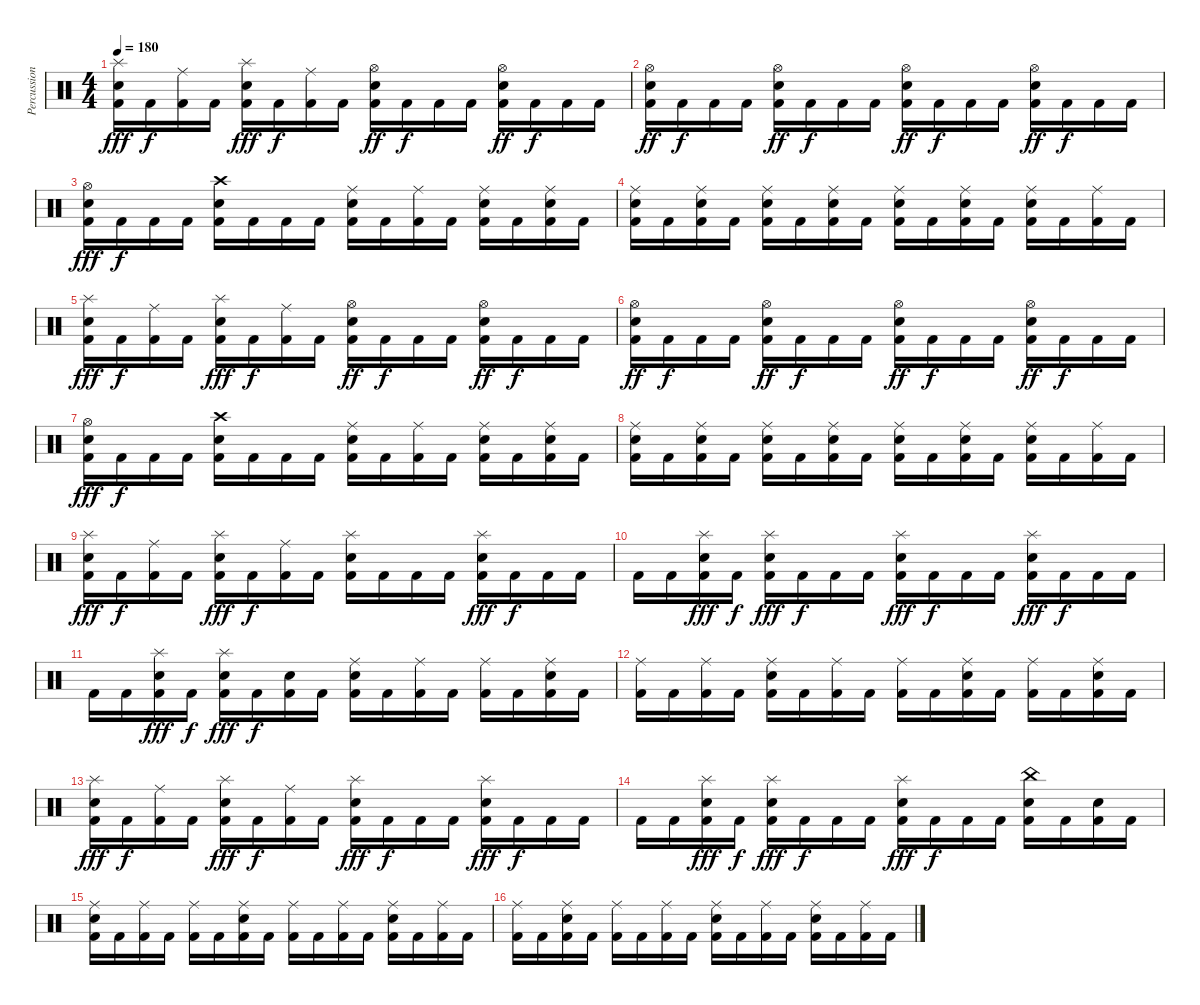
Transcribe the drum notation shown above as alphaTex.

\track ("Percussion" "Percussion") {instrument percussion}
\staff {score}
\articulation defaults
\ts (4 4)
\tempo 180
\clef neutral
\ks c
("Splash (hit)" "Electric Snare (hit)" "Kick (hit) 2").16{dy fff} "Kick (hit) 2".16{dy f} ("Ride (middle)" "Kick (hit) 2").16 "Kick (hit) 2".16 ("Splash (hit)" "Electric Snare (hit)" "Kick (hit) 2").16{dy fff} "Kick (hit) 2".16{dy f} ("Ride (middle)" "Kick (hit) 2").16 "Kick (hit) 2".16 ("Hi-Hat (open)" "Electric Snare (hit)" "Kick (hit) 2").16{dy ff} "Kick (hit) 2".16{dy f} "Kick (hit) 2".16 "Kick (hit) 2".16 ("Hi-Hat (open)" "Electric Snare (hit)" "Kick (hit) 2").16{dy ff} "Kick (hit) 2".16{dy f} "Kick (hit) 2".16 "Kick (hit) 2".16 |
("Hi-Hat (open)" "Electric Snare (hit)" "Kick (hit) 2").16{dy ff} "Kick (hit) 2".16{dy f} "Kick (hit) 2".16 "Kick (hit) 2".16 ("Hi-Hat (open)" "Electric Snare (hit)" "Kick (hit) 2").16{dy ff} "Kick (hit) 2".16{dy f} "Kick (hit) 2".16 "Kick (hit) 2".16 ("Hi-Hat (open)" "Electric Snare (hit)" "Kick (hit) 2").16{dy ff} "Kick (hit) 2".16{dy f} "Kick (hit) 2".16 "Kick (hit) 2".16 ("Hi-Hat (open)" "Electric Snare (hit)" "Kick (hit) 2").16{dy ff} "Kick (hit) 2".16{dy f} "Kick (hit) 2".16 "Kick (hit) 2".16 |
("Hi-Hat (open)" "Electric Snare (hit)" "Kick (hit) 2").16{dy fff} "Kick (hit) 2".16{dy f} "Kick (hit) 2".16 "Kick (hit) 2".16 ("Crash high (hit)" "Electric Snare (hit)" "Kick (hit) 2").16 "Kick (hit) 2".16 "Kick (hit) 2".16 "Kick (hit) 2".16 ("Ride (middle)" "Electric Snare (hit)" "Kick (hit) 2").16 "Kick (hit) 2".16 ("Ride (middle)" "Kick (hit) 2").16 "Kick (hit) 2".16 ("Ride (middle)" "Electric Snare (hit)" "Kick (hit) 2").16 "Kick (hit) 2".16 ("Ride (middle)" "Electric Snare (hit)" "Kick (hit) 2").16 "Kick (hit) 2".16 |
("Ride (middle)" "Electric Snare (hit)" "Kick (hit) 2").16 "Kick (hit) 2".16 ("Ride (middle)" "Electric Snare (hit)" "Kick (hit) 2").16 "Kick (hit) 2".16 ("Ride (middle)" "Electric Snare (hit)" "Kick (hit) 2").16 "Kick (hit) 2".16 ("Ride (middle)" "Electric Snare (hit)" "Kick (hit) 2").16 "Kick (hit) 2".16 ("Ride (middle)" "Electric Snare (hit)" "Kick (hit) 2").16 "Kick (hit) 2".16 ("Ride (middle)" "Electric Snare (hit)" "Kick (hit) 2").16 "Kick (hit) 2".16 ("Ride (middle)" "Electric Snare (hit)" "Kick (hit) 2").16 "Kick (hit) 2".16 ("Ride (middle)" "Kick (hit) 2").16 "Kick (hit) 2".16 |
("Splash (hit)" "Electric Snare (hit)" "Kick (hit) 2").16{dy fff} "Kick (hit) 2".16{dy f} ("Ride (middle)" "Kick (hit) 2").16 "Kick (hit) 2".16 ("Splash (hit)" "Electric Snare (hit)" "Kick (hit) 2").16{dy fff} "Kick (hit) 2".16{dy f} ("Ride (middle)" "Kick (hit) 2").16 "Kick (hit) 2".16 ("Hi-Hat (open)" "Electric Snare (hit)" "Kick (hit) 2").16{dy ff} "Kick (hit) 2".16{dy f} "Kick (hit) 2".16 "Kick (hit) 2".16 ("Hi-Hat (open)" "Electric Snare (hit)" "Kick (hit) 2").16{dy ff} "Kick (hit) 2".16{dy f} "Kick (hit) 2".16 "Kick (hit) 2".16 |
("Hi-Hat (open)" "Electric Snare (hit)" "Kick (hit) 2").16{dy ff} "Kick (hit) 2".16{dy f} "Kick (hit) 2".16 "Kick (hit) 2".16 ("Hi-Hat (open)" "Electric Snare (hit)" "Kick (hit) 2").16{dy ff} "Kick (hit) 2".16{dy f} "Kick (hit) 2".16 "Kick (hit) 2".16 ("Hi-Hat (open)" "Electric Snare (hit)" "Kick (hit) 2").16{dy ff} "Kick (hit) 2".16{dy f} "Kick (hit) 2".16 "Kick (hit) 2".16 ("Hi-Hat (open)" "Electric Snare (hit)" "Kick (hit) 2").16{dy ff} "Kick (hit) 2".16{dy f} "Kick (hit) 2".16 "Kick (hit) 2".16 |
("Hi-Hat (open)" "Electric Snare (hit)" "Kick (hit) 2").16{dy fff} "Kick (hit) 2".16{dy f} "Kick (hit) 2".16 "Kick (hit) 2".16 ("Crash high (hit)" "Electric Snare (hit)" "Kick (hit) 2").16 "Kick (hit) 2".16 "Kick (hit) 2".16 "Kick (hit) 2".16 ("Ride (middle)" "Electric Snare (hit)" "Kick (hit) 2").16 "Kick (hit) 2".16 ("Ride (middle)" "Kick (hit) 2").16 "Kick (hit) 2".16 ("Ride (middle)" "Electric Snare (hit)" "Kick (hit) 2").16 "Kick (hit) 2".16 ("Ride (middle)" "Electric Snare (hit)" "Kick (hit) 2").16 "Kick (hit) 2".16 |
("Ride (middle)" "Electric Snare (hit)" "Kick (hit) 2").16 "Kick (hit) 2".16 ("Ride (middle)" "Electric Snare (hit)" "Kick (hit) 2").16 "Kick (hit) 2".16 ("Ride (middle)" "Electric Snare (hit)" "Kick (hit) 2").16 "Kick (hit) 2".16 ("Ride (middle)" "Electric Snare (hit)" "Kick (hit) 2").16 "Kick (hit) 2".16 ("Ride (middle)" "Electric Snare (hit)" "Kick (hit) 2").16 "Kick (hit) 2".16 ("Ride (middle)" "Electric Snare (hit)" "Kick (hit) 2").16 "Kick (hit) 2".16 ("Ride (middle)" "Electric Snare (hit)" "Kick (hit) 2").16 "Kick (hit) 2".16 ("Ride (middle)" "Kick (hit) 2").16 "Kick (hit) 2".16 |
("Splash (hit)" "Electric Snare (hit)" "Kick (hit) 2").16{dy fff} "Kick (hit) 2".16{dy f} ("Ride (middle)" "Kick (hit) 2").16 "Kick (hit) 2".16 ("Splash (hit)" "Electric Snare (hit)" "Kick (hit) 2").16{dy fff} "Kick (hit) 2".16{dy f} ("Ride (middle)" "Kick (hit) 2").16 "Kick (hit) 2".16 ("Splash (hit)" "Electric Snare (hit)" "Kick (hit) 2").16 "Kick (hit) 2".16 "Kick (hit) 2".16 "Kick (hit) 2".16 ("Splash (hit)" "Electric Snare (hit)" "Kick (hit) 2").16{dy fff} "Kick (hit) 2".16{dy f} "Kick (hit) 2".16 "Kick (hit) 2".16 |
"Kick (hit) 2".16 "Kick (hit) 2".16 ("Splash (hit)" "Electric Snare (hit)" "Kick (hit) 2").16{dy fff} "Kick (hit) 2".16{dy f} ("Splash (hit)" "Electric Snare (hit)" "Kick (hit) 2").16{dy fff} "Kick (hit) 2".16{dy f} "Kick (hit) 2".16 "Kick (hit) 2".16 ("Splash (hit)" "Electric Snare (hit)" "Kick (hit) 2").16{dy fff} "Kick (hit) 2".16{dy f} "Kick (hit) 2".16 "Kick (hit) 2".16 ("Splash (hit)" "Electric Snare (hit)" "Kick (hit) 2").16{dy fff} "Kick (hit) 2".16{dy f} "Kick (hit) 2".16 "Kick (hit) 2".16 |
"Kick (hit) 2".16 "Kick (hit) 2".16 ("Splash (hit)" "Electric Snare (hit)" "Kick (hit) 2").16{dy fff} "Kick (hit) 2".16{dy f} ("Splash (hit)" "Electric Snare (hit)" "Kick (hit) 2").16{dy fff} "Kick (hit) 2".16{dy f} ("Electric Snare (hit)" "Kick (hit) 2").16 "Kick (hit) 2".16 ("Ride (middle)" "Electric Snare (hit)" "Kick (hit) 2").16 "Kick (hit) 2".16 ("Ride (middle)" "Kick (hit) 2").16 "Kick (hit) 2".16 ("Ride (middle)" "Kick (hit) 2").16 "Kick (hit) 2".16 ("Ride (middle)" "Electric Snare (hit)" "Kick (hit) 2").16 "Kick (hit) 2".16 |
("Ride (middle)" "Kick (hit) 2").16 "Kick (hit) 2".16 ("Ride (middle)" "Kick (hit) 2").16 "Kick (hit) 2".16 ("Ride (middle)" "Electric Snare (hit)" "Kick (hit) 2").16 "Kick (hit) 2".16 ("Ride (middle)" "Kick (hit) 2").16 "Kick (hit) 2".16 ("Ride (middle)" "Kick (hit) 2").16 "Kick (hit) 2".16 ("Ride (middle)" "Electric Snare (hit)" "Kick (hit) 2").16 "Kick (hit) 2".16 ("Ride (middle)" "Kick (hit) 2").16 "Kick (hit) 2".16 ("Ride (middle)" "Electric Snare (hit)" "Kick (hit) 2").16 "Kick (hit) 2".16 |
("Splash (hit)" "Electric Snare (hit)" "Kick (hit) 2").16{dy fff} "Kick (hit) 2".16{dy f} ("Ride (middle)" "Kick (hit) 2").16 "Kick (hit) 2".16 ("Splash (hit)" "Electric Snare (hit)" "Kick (hit) 2").16{dy fff} "Kick (hit) 2".16{dy f} ("Ride (middle)" "Kick (hit) 2").16 "Kick (hit) 2".16 ("Splash (hit)" "Electric Snare (hit)" "Kick (hit) 2").16{dy fff} "Kick (hit) 2".16{dy f} "Kick (hit) 2".16 "Kick (hit) 2".16 ("Splash (hit)" "Electric Snare (hit)" "Kick (hit) 2").16{dy fff} "Kick (hit) 2".16{dy f} "Kick (hit) 2".16 "Kick (hit) 2".16 |
"Kick (hit) 2".16 "Kick (hit) 2".16 ("Splash (hit)" "Electric Snare (hit)" "Kick (hit) 2").16{dy fff} "Kick (hit) 2".16{dy f} ("Splash (hit)" "Electric Snare (hit)" "Kick (hit) 2").16{dy fff} "Kick (hit) 2".16{dy f} "Kick (hit) 2".16 "Kick (hit) 2".16 ("Splash (hit)" "Electric Snare (hit)" "Kick (hit) 2").16{dy fff} "Kick (hit) 2".16{dy f} "Kick (hit) 2".16 "Kick (hit) 2".16 ("China (hit)" "Electric Snare (hit)" "Kick (hit) 2").16 "Kick (hit) 2".16 ("Electric Snare (hit)" "Kick (hit) 2").16 "Kick (hit) 2".16 |
("Ride (middle)" "Electric Snare (hit)" "Kick (hit) 2").16 "Kick (hit) 2".16 ("Ride (middle)" "Kick (hit) 2").16 "Kick (hit) 2".16 ("Ride (middle)" "Kick (hit) 2").16 "Kick (hit) 2".16 ("Ride (middle)" "Electric Snare (hit)" "Kick (hit) 2").16 "Kick (hit) 2".16 ("Ride (middle)" "Kick (hit) 2").16 "Kick (hit) 2".16 ("Ride (middle)" "Kick (hit) 2").16 "Kick (hit) 2".16 ("Ride (middle)" "Electric Snare (hit)" "Kick (hit) 2").16 "Kick (hit) 2".16 ("Ride (middle)" "Kick (hit) 2").16 "Kick (hit) 2".16 |
("Ride (middle)" "Kick (hit) 2").16 "Kick (hit) 2".16 ("Ride (middle)" "Electric Snare (hit)" "Kick (hit) 2").16 "Kick (hit) 2".16 ("Ride (middle)" "Kick (hit) 2").16 "Kick (hit) 2".16 ("Ride (middle)" "Kick (hit) 2").16 "Kick (hit) 2".16 ("Ride (middle)" "Electric Snare (hit)" "Kick (hit) 2").16 "Kick (hit) 2".16 ("Ride (middle)" "Kick (hit) 2").16 "Kick (hit) 2".16 ("Ride (middle)" "Electric Snare (hit)" "Kick (hit) 2").16 "Kick (hit) 2".16 ("Ride (middle)" "Kick (hit) 2").16 "Kick (hit) 2".16
